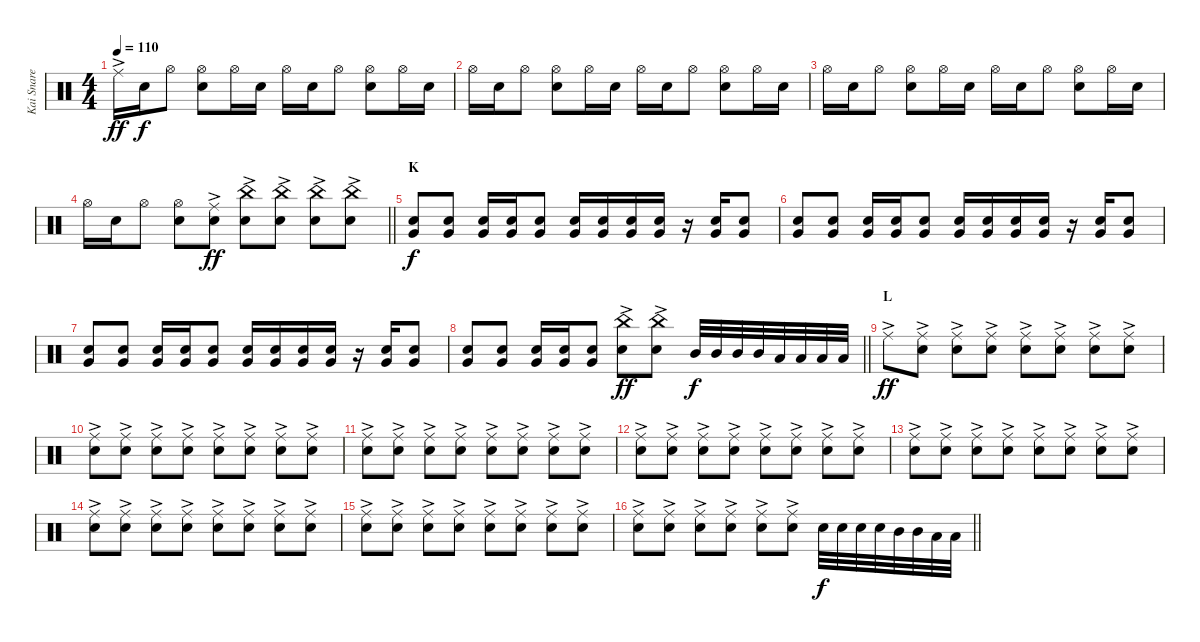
\track ("Kai Snare" "Kai Snare") {instrument percussion}
\staff {score}
\articulation defaults
\ts (4 4)
\tempo 110
\clef neutral
\ks c "Ride (middle)"{ac}.16{dy ff} "Snare (hit) 2".16{dy f} "Hi-Hat (open)".8
("Hi-Hat (open)" "Snare (hit) 2").8 "Hi-Hat (open)".16 "Snare (hit) 2".16 "Hi-Hat (open)".16 "Snare (hit) 2".16 "Hi-Hat (open)".8 ("Hi-Hat (open)" "Snare (hit) 2").8 "Hi-Hat (open)".16 "Snare (hit) 2".16 |
"Hi-Hat (open)".16 "Snare (hit) 2".16 "Hi-Hat (open)".8 ("Hi-Hat (open)" "Snare (hit) 2").8 "Hi-Hat (open)".16 "Snare (hit) 2".16 "Hi-Hat (open)".16 "Snare (hit) 2".16 "Hi-Hat (open)".8 ("Hi-Hat (open)" "Snare (hit) 2").8 "Hi-Hat (open)".16 "Snare (hit) 2".16 |
"Hi-Hat (open)".16 "Snare (hit) 2".16 "Hi-Hat (open)".8 ("Hi-Hat (open)" "Snare (hit) 2").8 "Hi-Hat (open)".16 "Snare (hit) 2".16 "Hi-Hat (open)".16 "Snare (hit) 2".16 "Hi-Hat (open)".8 ("Hi-Hat (open)" "Snare (hit) 2").8 "Hi-Hat (open)".16 "Snare (hit) 2".16 |
\barLineRight lightlight "Hi-Hat (open)".16 "Snare (hit) 2".16 "Hi-Hat (open)".8
("Hi-Hat (open)" "Snare (hit) 2").8 ("Ride (middle)"{ac} "Snare (hit) 2").8{dy ff} ("China (hit)"{ac} "Snare (hit) 2").8 ("China (hit)"{ac} "Snare (hit) 2").8 ("China (hit)"{ac} "Snare (hit) 2").8 ("China (hit)"{ac} "Snare (hit) 2").8 |
\section ("" "K")
("Very Low Tom (hit)" "Hand Clap (hit)").8{dy f} ("Very Low Tom (hit)" "Hand Clap (hit)").8 ("Very Low Tom (hit)" "Hand Clap (hit)").16 ("Very Low Tom (hit)" "Hand Clap (hit)").16 ("Very Low Tom (hit)" "Hand Clap (hit)").8 ("Very Low Tom (hit)" "Hand Clap (hit)").16 ("Very Low Tom (hit)" "Hand Clap (hit)").16 ("Very Low Tom (hit)" "Hand Clap (hit)").16 ("Very Low Tom (hit)" "Hand Clap (hit)").16 r.16 ("Very Low Tom (hit)" "Hand Clap (hit)").16 ("Very Low Tom (hit)" "Hand Clap (hit)").8 |
("Very Low Tom (hit)" "Hand Clap (hit)").8 ("Very Low Tom (hit)" "Hand Clap (hit)").8 ("Very Low Tom (hit)" "Hand Clap (hit)").16 ("Very Low Tom (hit)" "Hand Clap (hit)").16 ("Very Low Tom (hit)" "Hand Clap (hit)").8 ("Very Low Tom (hit)" "Hand Clap (hit)").16 ("Very Low Tom (hit)" "Hand Clap (hit)").16 ("Very Low Tom (hit)" "Hand Clap (hit)").16 ("Very Low Tom (hit)" "Hand Clap (hit)").16 r.16 ("Very Low Tom (hit)" "Hand Clap (hit)").16 ("Very Low Tom (hit)" "Hand Clap (hit)").8 |
("Very Low Tom (hit)" "Hand Clap (hit)").8 ("Very Low Tom (hit)" "Hand Clap (hit)").8 ("Very Low Tom (hit)" "Hand Clap (hit)").16 ("Very Low Tom (hit)" "Hand Clap (hit)").16 ("Very Low Tom (hit)" "Hand Clap (hit)").8 ("Very Low Tom (hit)" "Hand Clap (hit)").16 ("Very Low Tom (hit)" "Hand Clap (hit)").16 ("Very Low Tom (hit)" "Hand Clap (hit)").16 ("Very Low Tom (hit)" "Hand Clap (hit)").16 r.16 ("Very Low Tom (hit)" "Hand Clap (hit)").16 ("Very Low Tom (hit)" "Hand Clap (hit)").8 |
\barLineRight lightlight
("Very Low Tom (hit)" "Hand Clap (hit)").8 ("Very Low Tom (hit)" "Hand Clap (hit)").8 ("Very Low Tom (hit)" "Hand Clap (hit)").16 ("Very Low Tom (hit)" "Hand Clap (hit)").16 ("Very Low Tom (hit)" "Hand Clap (hit)").8 ("China (hit)"{ac} "Snare (hit) 2").8{dy ff} ("China (hit)"{ac} "Snare (hit) 2").8 "Mid Tom (hit)".32{dy f} "Mid Tom (hit)".32 "Mid Tom (hit)".32 "Mid Tom (hit)".32 "Low Tom (hit)".32 "Low Tom (hit)".32 "Low Tom (hit)".32 "Low Tom (hit)".32 |
\section ("" "L")
"Ride (middle)"{ac}.8{dy ff} ("Ride (middle)"{ac} "Snare (hit) 2").8 ("Ride (middle)"{ac} "Snare (hit) 2").8 ("Ride (middle)"{ac} "Snare (hit) 2").8 ("Ride (middle)"{ac} "Snare (hit) 2").8 ("Ride (middle)"{ac} "Snare (hit) 2").8 ("Ride (middle)"{ac} "Snare (hit) 2").8 ("Ride (middle)"{ac} "Snare (hit) 2").8 |
("Ride (middle)"{ac} "Snare (hit) 2").8 ("Ride (middle)"{ac} "Snare (hit) 2").8 ("Ride (middle)"{ac} "Snare (hit) 2").8 ("Ride (middle)"{ac} "Snare (hit) 2").8 ("Ride (middle)"{ac} "Snare (hit) 2").8 ("Ride (middle)"{ac} "Snare (hit) 2").8 ("Ride (middle)"{ac} "Snare (hit) 2").8 ("Ride (middle)"{ac} "Snare (hit) 2").8 |
("Ride (middle)"{ac} "Snare (hit) 2").8 ("Ride (middle)"{ac} "Snare (hit) 2").8 ("Ride (middle)"{ac} "Snare (hit) 2").8 ("Ride (middle)"{ac} "Snare (hit) 2").8 ("Ride (middle)"{ac} "Snare (hit) 2").8 ("Ride (middle)"{ac} "Snare (hit) 2").8 ("Ride (middle)"{ac} "Snare (hit) 2").8 ("Ride (middle)"{ac} "Snare (hit) 2").8 |
("Ride (middle)"{ac} "Snare (hit) 2").8 ("Ride (middle)"{ac} "Snare (hit) 2").8 ("Ride (middle)"{ac} "Snare (hit) 2").8 ("Ride (middle)"{ac} "Snare (hit) 2").8 ("Ride (middle)"{ac} "Snare (hit) 2").8 ("Ride (middle)"{ac} "Snare (hit) 2").8 ("Ride (middle)"{ac} "Snare (hit) 2").8 ("Ride (middle)"{ac} "Snare (hit) 2").8 |
("Ride (middle)"{ac} "Snare (hit) 2").8 ("Ride (middle)"{ac} "Snare (hit) 2").8 ("Ride (middle)"{ac} "Snare (hit) 2").8 ("Ride (middle)"{ac} "Snare (hit) 2").8 ("Ride (middle)"{ac} "Snare (hit) 2").8 ("Ride (middle)"{ac} "Snare (hit) 2").8 ("Ride (middle)"{ac} "Snare (hit) 2").8 ("Ride (middle)"{ac} "Snare (hit) 2").8 |
("Ride (middle)"{ac} "Snare (hit) 2").8 ("Ride (middle)"{ac} "Snare (hit) 2").8 ("Ride (middle)"{ac} "Snare (hit) 2").8 ("Ride (middle)"{ac} "Snare (hit) 2").8 ("Ride (middle)"{ac} "Snare (hit) 2").8 ("Ride (middle)"{ac} "Snare (hit) 2").8 ("Ride (middle)"{ac} "Snare (hit) 2").8 ("Ride (middle)"{ac} "Snare (hit) 2").8 |
("Ride (middle)"{ac} "Snare (hit) 2").8 ("Ride (middle)"{ac} "Snare (hit) 2").8 ("Ride (middle)"{ac} "Snare (hit) 2").8 ("Ride (middle)"{ac} "Snare (hit) 2").8 ("Ride (middle)"{ac} "Snare (hit) 2").8 ("Ride (middle)"{ac} "Snare (hit) 2").8 ("Ride (middle)"{ac} "Snare (hit) 2").8 ("Ride (middle)"{ac} "Snare (hit) 2").8 |
\barLineRight lightlight
("Ride (middle)"{ac} "Snare (hit) 2").8 ("Ride (middle)"{ac} "Snare (hit) 2").8 ("Ride (middle)"{ac} "Snare (hit) 2").8 ("Ride (middle)"{ac} "Snare (hit) 2").8 ("Ride (middle)"{ac} "Snare (hit) 2").8 ("Ride (middle)"{ac} "Snare (hit) 2").8 "Snare (hit) 2".32{dy f} "Snare (hit) 2".32 "Snare (hit) 2".32 "Snare (hit) 2".32 "Mid Tom (hit)".32 "Mid Tom (hit)".32 "Low Tom (hit)".32 "Low Tom (hit)".32
